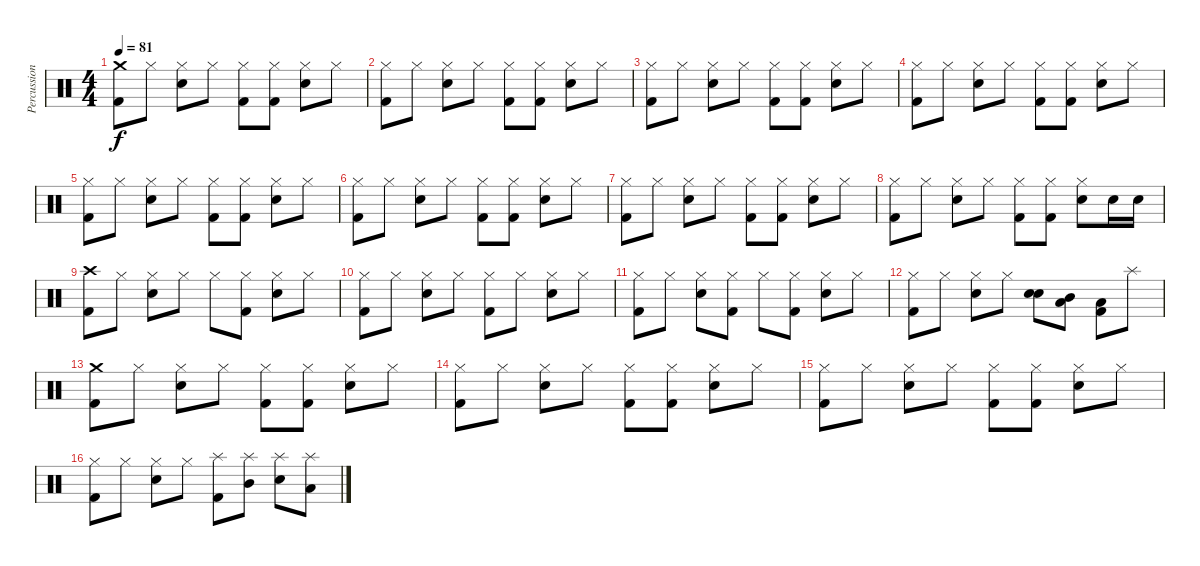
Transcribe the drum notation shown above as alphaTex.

\track ("Percussion" "Percussion") {instrument percussion}
\staff {score}
\articulation defaults
\ts (4 4)
\tempo 81
\clef neutral
\ks c
("Crash medium (hit)" "Kick (hit) 2").8{dy f} "Hi-Hat (closed)".8 ("Hi-Hat (closed)" "Snare (hit) 2").8 "Hi-Hat (closed)".8 ("Hi-Hat (closed)" "Kick (hit) 2").8 ("Hi-Hat (closed)" "Kick (hit) 2").8 ("Hi-Hat (closed)" "Snare (hit) 2").8 "Hi-Hat (closed)".8 |
("Hi-Hat (closed)" "Kick (hit) 2").8 "Hi-Hat (closed)".8 ("Hi-Hat (closed)" "Snare (hit) 2").8 "Hi-Hat (closed)".8 ("Hi-Hat (closed)" "Kick (hit) 2").8 ("Hi-Hat (closed)" "Kick (hit) 2").8 ("Hi-Hat (closed)" "Snare (hit) 2").8 "Hi-Hat (closed)".8 |
("Hi-Hat (closed)" "Kick (hit) 2").8 "Hi-Hat (closed)".8 ("Hi-Hat (closed)" "Snare (hit) 2").8 "Hi-Hat (closed)".8 ("Hi-Hat (closed)" "Kick (hit) 2").8 ("Hi-Hat (closed)" "Kick (hit) 2").8 ("Hi-Hat (closed)" "Snare (hit) 2").8 "Hi-Hat (closed)".8 |
("Hi-Hat (closed)" "Kick (hit) 2").8 "Hi-Hat (closed)".8 ("Hi-Hat (closed)" "Snare (hit) 2").8 "Hi-Hat (closed)".8 ("Hi-Hat (closed)" "Kick (hit) 2").8 ("Hi-Hat (closed)" "Kick (hit) 2").8 ("Hi-Hat (closed)" "Snare (hit) 2").8 "Hi-Hat (closed)".8 |
("Hi-Hat (closed)" "Kick (hit) 2").8 "Hi-Hat (closed)".8 ("Hi-Hat (closed)" "Snare (hit) 2").8 "Hi-Hat (closed)".8 ("Hi-Hat (closed)" "Kick (hit) 2").8 ("Hi-Hat (closed)" "Kick (hit) 2").8 ("Hi-Hat (closed)" "Snare (hit) 2").8 "Hi-Hat (closed)".8 |
("Hi-Hat (closed)" "Kick (hit) 2").8 "Hi-Hat (closed)".8 ("Hi-Hat (closed)" "Snare (hit) 2").8 "Hi-Hat (closed)".8 ("Hi-Hat (closed)" "Kick (hit) 2").8 ("Hi-Hat (closed)" "Kick (hit) 2").8 ("Hi-Hat (closed)" "Snare (hit) 2").8 "Hi-Hat (closed)".8 |
("Hi-Hat (closed)" "Kick (hit) 2").8 "Hi-Hat (closed)".8 ("Hi-Hat (closed)" "Snare (hit) 2").8 "Hi-Hat (closed)".8 ("Hi-Hat (closed)" "Kick (hit) 2").8 ("Hi-Hat (closed)" "Kick (hit) 2").8 ("Hi-Hat (closed)" "Snare (hit) 2").8 "Hi-Hat (closed)".8 |
("Hi-Hat (closed)" "Kick (hit) 2").8 "Hi-Hat (closed)".8 ("Hi-Hat (closed)" "Snare (hit) 2").8 "Hi-Hat (closed)".8 ("Hi-Hat (closed)" "Kick (hit) 2").8 ("Hi-Hat (closed)" "Kick (hit) 2").8 ("Hi-Hat (closed)" "Snare (hit) 2").8 "Snare (hit) 2".16 "Snare (hit) 2".16 |
("Crash high (hit)" "Kick (hit) 2").8 "Hi-Hat (closed)".8 ("Hi-Hat (closed)" "Snare (hit) 2").8 "Hi-Hat (closed)".8 "Hi-Hat (closed)".8 ("Hi-Hat (closed)" "Kick (hit) 2").8 ("Hi-Hat (closed)" "Snare (hit) 2").8 "Hi-Hat (closed)".8 |
("Hi-Hat (closed)" "Kick (hit) 2").8 "Hi-Hat (closed)".8 ("Hi-Hat (closed)" "Snare (hit) 2").8 "Hi-Hat (closed)".8 ("Hi-Hat (closed)" "Kick (hit) 2").8 "Hi-Hat (closed)".8 ("Hi-Hat (closed)" "Snare (hit) 2").8 "Hi-Hat (closed)".8 |
("Hi-Hat (closed)" "Kick (hit) 2").8 "Hi-Hat (closed)".8 ("Hi-Hat (closed)" "Snare (hit) 2").8 ("Hi-Hat (closed)" "Kick (hit) 2").8 "Hi-Hat (closed)".8 ("Hi-Hat (closed)" "Kick (hit) 2").8 ("Hi-Hat (closed)" "Snare (hit) 2").8 "Hi-Hat (closed)".8 |
("Hi-Hat (closed)" "Kick (hit) 2").8 "Hi-Hat (closed)".8 ("Hi-Hat (closed)" "Snare (hit) 2").8 "Hi-Hat (closed)".8 ("Snare (hit) 2" "Snare (hit) 2").8 ("Mid Tom (hit)" "Low Tom (hit)").8 ("Low Tom (hit)" "Kick (hit) 2").8 "Splash (hit)".8 |
("Crash medium (hit)" "Kick (hit) 2").8 "Hi-Hat (closed)".8 ("Hi-Hat (closed)" "Snare (hit) 2").8 "Hi-Hat (closed)".8 ("Hi-Hat (closed)" "Kick (hit) 2").8 ("Hi-Hat (closed)" "Kick (hit) 2").8 ("Hi-Hat (closed)" "Snare (hit) 2").8 "Hi-Hat (closed)".8 |
("Hi-Hat (closed)" "Kick (hit) 2").8 "Hi-Hat (closed)".8 ("Hi-Hat (closed)" "Snare (hit) 2").8 "Hi-Hat (closed)".8 ("Hi-Hat (closed)" "Kick (hit) 2").8 ("Hi-Hat (closed)" "Kick (hit) 2").8 ("Hi-Hat (closed)" "Snare (hit) 2").8 "Hi-Hat (closed)".8 |
("Hi-Hat (closed)" "Kick (hit) 2").8 "Hi-Hat (closed)".8 ("Hi-Hat (closed)" "Snare (hit) 2").8 "Hi-Hat (closed)".8 ("Hi-Hat (closed)" "Kick (hit) 2").8 ("Hi-Hat (closed)" "Kick (hit) 2").8 ("Hi-Hat (closed)" "Snare (hit) 2").8 "Hi-Hat (closed)".8 |
("Hi-Hat (closed)" "Kick (hit) 2").8 "Hi-Hat (closed)".8 ("Hi-Hat (closed)" "Snare (hit) 2").8 "Hi-Hat (closed)".8 ("Splash (hit)" "Kick (hit) 2").8 ("Splash (hit)" "Mid Tom (hit)").8 ("Splash (hit)" "Snare (hit) 2").8 ("Splash (hit)" "Low Tom (hit)").8
